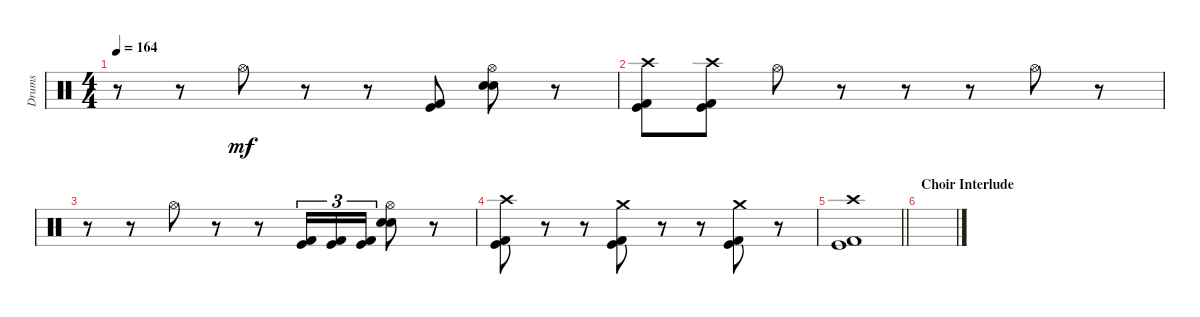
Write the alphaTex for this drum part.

\track ("Drums" "Drums") {instrument percussion}
\staff {score}
\articulation defaults
\ts (4 4)
\tempo 164
\clef neutral
\ks c
r.8{dy mf} r.8 "Hi-Hat (open)".8 r.8 r.8 ("Kick (hit) 2" "Kick (hit)").8 ("Hi-Hat (open)" "Snare (hit) 2" "Electric Snare (hit)").8 r.8 |
("Crash high (hit)" "Kick (hit) 2" "Kick (hit)").8 ("Crash high (hit)" "Kick (hit) 2" "Kick (hit)").8 "Hi-Hat (open)".8 r.8 r.8 r.8 "Hi-Hat (open)".8 r.8 |
r.8 r.8 "Hi-Hat (open)".8 r.8 r.8 ("Kick (hit) 2" "Kick (hit)").16{tu (3 2)} ("Kick (hit) 2" "Kick (hit)").16{tu (3 2)} ("Kick (hit) 2" "Kick (hit)").16{tu (3 2)} ("Hi-Hat (open)" "Snare (hit) 2" "Electric Snare (hit)").8 r.8 |
("Crash high (hit)" "Kick (hit) 2" "Kick (hit)").8 r.8 r.8 ("Crash medium (hit)" "Kick (hit) 2" "Kick (hit)").8 r.8 r.8 ("Crash medium (hit)" "Kick (hit) 2" "Kick (hit)").8 r.8 |
\barLineRight lightlight
("Crash high (hit)" "Kick (hit) 2" "Kick (hit)").1 |
\section ("" "Choir Interlude")
